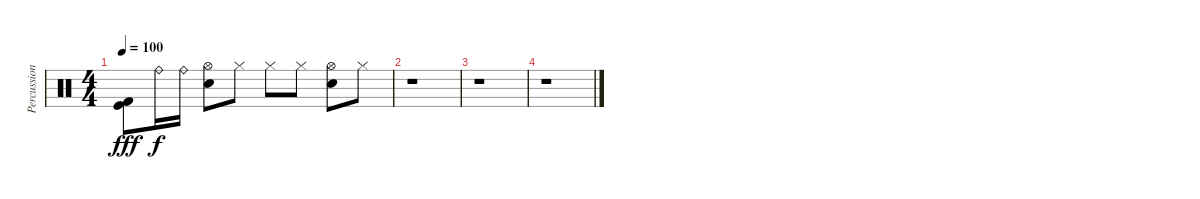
\track ("Percussion" "Percussion") {instrument percussion}
\staff {score}
\articulation defaults
\ts (4 4)
\tempo 100
\clef neutral
\ks c
("Kick (hit) 2" "Kick (hit)").8{dy fff} "Ride (bell)".16{dy f} "Ride (bell)".16 ("Snare (hit) 2" "Hi-Hat (open)").8 "Hi-Hat (closed)".8 "Hi-Hat (closed)".8 "Hi-Hat (closed)".8 ("Snare (hit) 2" "Hi-Hat (open)").8 "Hi-Hat (closed)".8 |
r.1 |
r.1 |
r.1
